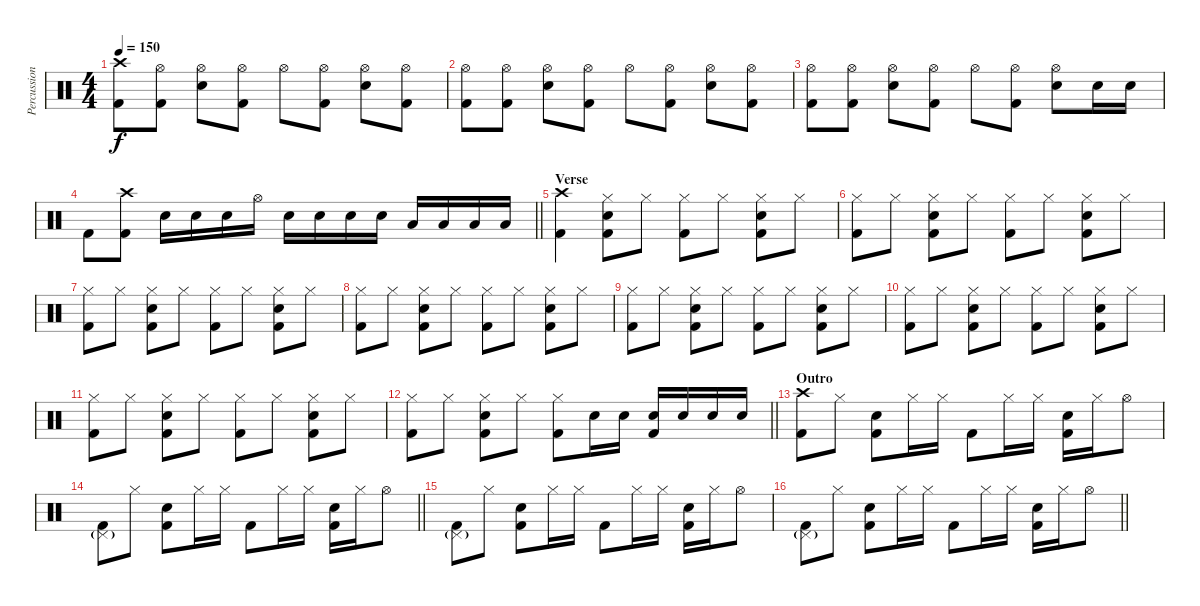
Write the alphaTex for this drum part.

\track ("Percussion" "Percussion") {instrument percussion}
\staff {score}
\articulation defaults
\ts (4 4)
\tempo 150
\clef neutral
\ks c
("Crash high (hit)" "Kick (hit) 2").8{dy f} ("Hi-Hat (open)" "Kick (hit) 2").8 ("Hi-Hat (open)" "Electric Snare (hit)").8 ("Hi-Hat (open)" "Kick (hit) 2").8 "Hi-Hat (open)".8 ("Hi-Hat (open)" "Kick (hit) 2").8 ("Hi-Hat (open)" "Electric Snare (hit)").8 ("Hi-Hat (open)" "Kick (hit) 2").8 |
("Hi-Hat (open)" "Kick (hit) 2").8 ("Hi-Hat (open)" "Kick (hit) 2").8 ("Hi-Hat (open)" "Electric Snare (hit)").8 ("Hi-Hat (open)" "Kick (hit) 2").8 "Hi-Hat (open)".8 ("Hi-Hat (open)" "Kick (hit) 2").8 ("Hi-Hat (open)" "Electric Snare (hit)").8 ("Hi-Hat (open)" "Kick (hit) 2").8 |
("Hi-Hat (open)" "Kick (hit) 2").8 ("Hi-Hat (open)" "Kick (hit) 2").8 ("Hi-Hat (open)" "Electric Snare (hit)").8 ("Hi-Hat (open)" "Kick (hit) 2").8 "Hi-Hat (open)".8 ("Hi-Hat (open)" "Kick (hit) 2").8 ("Hi-Hat (open)" "Electric Snare (hit)").8 "Electric Snare (hit)".16 "Electric Snare (hit)".16 |
\barLineRight lightlight "Kick (hit) 2".8
("Crash high (hit)" "Kick (hit) 2").8 "Electric Snare (hit)".16 "Electric Snare (hit)".16 "Electric Snare (hit)".16 "Hi-Hat (open)".16 "Electric Snare (hit)".16 "Electric Snare (hit)".16 "Electric Snare (hit)".16 "Electric Snare (hit)".16 "Low Tom (hit)".16 "Low Tom (hit)".16 "Low Tom (hit)".16 "Low Tom (hit)".16 |
\section ("" "Verse")
("Crash high (hit)" "Kick (hit) 2").4 ("Hi-Hat (closed)" "Electric Snare (hit)" "Kick (hit) 2").8 "Hi-Hat (closed)".8 ("Hi-Hat (closed)" "Kick (hit) 2").8 "Hi-Hat (closed)".8 ("Hi-Hat (closed)" "Electric Snare (hit)" "Kick (hit) 2").8 "Hi-Hat (closed)".8 |
("Hi-Hat (closed)" "Kick (hit) 2").8 "Hi-Hat (closed)".8 ("Hi-Hat (closed)" "Electric Snare (hit)" "Kick (hit) 2").8 "Hi-Hat (closed)".8 ("Hi-Hat (closed)" "Kick (hit) 2").8 "Hi-Hat (closed)".8 ("Hi-Hat (closed)" "Electric Snare (hit)" "Kick (hit) 2").8 "Hi-Hat (closed)".8 |
("Hi-Hat (closed)" "Kick (hit) 2").8 "Hi-Hat (closed)".8 ("Hi-Hat (closed)" "Electric Snare (hit)" "Kick (hit) 2").8 "Hi-Hat (closed)".8 ("Hi-Hat (closed)" "Kick (hit) 2").8 "Hi-Hat (closed)".8 ("Hi-Hat (closed)" "Electric Snare (hit)" "Kick (hit) 2").8 "Hi-Hat (closed)".8 |
("Hi-Hat (closed)" "Kick (hit) 2").8 "Hi-Hat (closed)".8 ("Hi-Hat (closed)" "Electric Snare (hit)" "Kick (hit) 2").8 "Hi-Hat (closed)".8 ("Hi-Hat (closed)" "Kick (hit) 2").8 "Hi-Hat (closed)".8 ("Hi-Hat (closed)" "Electric Snare (hit)" "Kick (hit) 2").8 "Hi-Hat (closed)".8 |
("Hi-Hat (closed)" "Kick (hit) 2").8 "Hi-Hat (closed)".8 ("Hi-Hat (closed)" "Electric Snare (hit)" "Kick (hit) 2").8 "Hi-Hat (closed)".8 ("Hi-Hat (closed)" "Kick (hit) 2").8 "Hi-Hat (closed)".8 ("Hi-Hat (closed)" "Electric Snare (hit)" "Kick (hit) 2").8 "Hi-Hat (closed)".8 |
("Hi-Hat (closed)" "Kick (hit) 2").8 "Hi-Hat (closed)".8 ("Hi-Hat (closed)" "Electric Snare (hit)" "Kick (hit) 2").8 "Hi-Hat (closed)".8 ("Hi-Hat (closed)" "Kick (hit) 2").8 "Hi-Hat (closed)".8 ("Hi-Hat (closed)" "Electric Snare (hit)" "Kick (hit) 2").8 "Hi-Hat (closed)".8 |
("Hi-Hat (closed)" "Kick (hit) 2").8 "Hi-Hat (closed)".8 ("Hi-Hat (closed)" "Electric Snare (hit)" "Kick (hit) 2").8 "Hi-Hat (closed)".8 ("Hi-Hat (closed)" "Kick (hit) 2").8 "Hi-Hat (closed)".8 ("Hi-Hat (closed)" "Electric Snare (hit)" "Kick (hit) 2").8 "Hi-Hat (closed)".8 |
\barLineRight lightlight
("Hi-Hat (closed)" "Kick (hit) 2").8 "Hi-Hat (closed)".8 ("Hi-Hat (closed)" "Electric Snare (hit)" "Kick (hit) 2").8 "Hi-Hat (closed)".8 ("Hi-Hat (closed)" "Kick (hit) 2").8 "Electric Snare (hit)".16 "Electric Snare (hit)".16 ("Electric Snare (hit)" "Kick (hit) 2").16 "Electric Snare (hit)".16 "Electric Snare (hit)".16 "Electric Snare (hit)".16 |
\section ("" "Outro")
("Crash high (hit)" "Kick (hit) 2").8 "Hi-Hat (closed)".8 ("Electric Snare (hit)" "Kick (hit) 2").8 "Hi-Hat (closed)".16 "Hi-Hat (closed)".16 "Kick (hit) 2".8 "Hi-Hat (closed)".16 "Hi-Hat (closed)".16 ("Electric Snare (hit)" "Kick (hit) 2").16 "Hi-Hat (closed)".16 "Hi-Hat (open)".8 |
\barLineRight lightlight
("Pedal Hi-Hat (hit)"{g} "Kick (hit) 2").8 "Hi-Hat (closed)".8 ("Electric Snare (hit)" "Kick (hit) 2").8 "Hi-Hat (closed)".16 "Hi-Hat (closed)".16 "Kick (hit) 2".8 "Hi-Hat (closed)".16 "Hi-Hat (closed)".16 ("Electric Snare (hit)" "Kick (hit) 2").16 "Hi-Hat (closed)".16 "Hi-Hat (open)".8 |
("Pedal Hi-Hat (hit)"{g} "Kick (hit) 2").8 "Hi-Hat (closed)".8 ("Electric Snare (hit)" "Kick (hit) 2").8 "Hi-Hat (closed)".16 "Hi-Hat (closed)".16 "Kick (hit) 2".8 "Hi-Hat (closed)".16 "Hi-Hat (closed)".16 ("Electric Snare (hit)" "Kick (hit) 2").16 "Hi-Hat (closed)".16 "Hi-Hat (open)".8 |
\barLineRight lightlight
("Pedal Hi-Hat (hit)"{g} "Kick (hit) 2").8 "Hi-Hat (closed)".8 ("Electric Snare (hit)" "Kick (hit) 2").8 "Hi-Hat (closed)".16 "Hi-Hat (closed)".16 "Kick (hit) 2".8 "Hi-Hat (closed)".16 "Hi-Hat (closed)".16 ("Electric Snare (hit)" "Kick (hit) 2").16 "Hi-Hat (closed)".16 "Hi-Hat (open)".8
